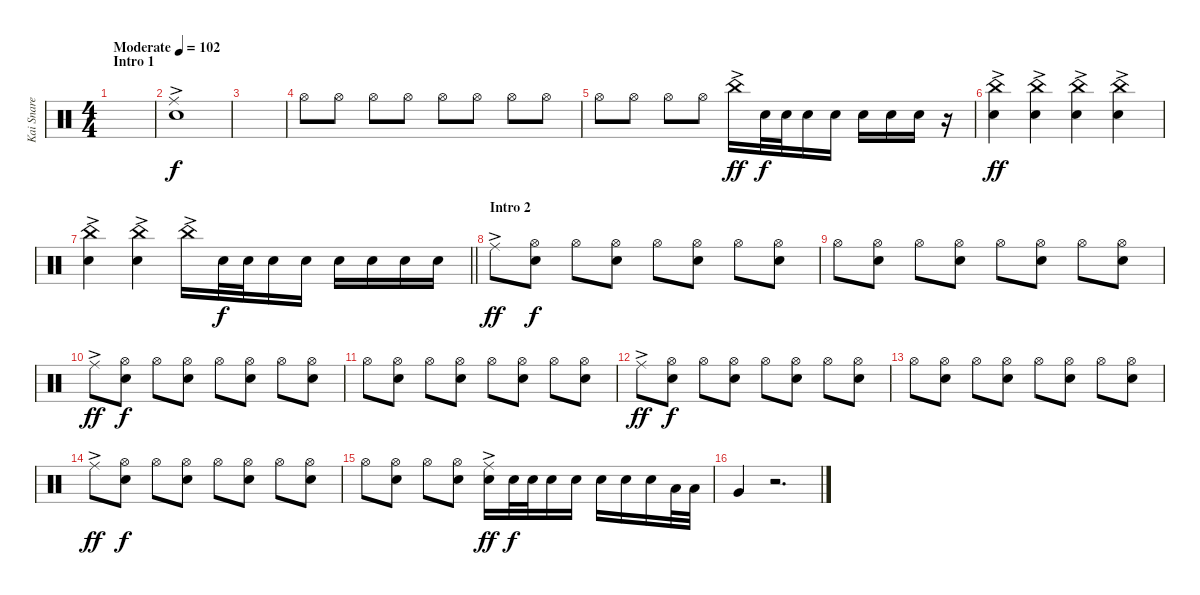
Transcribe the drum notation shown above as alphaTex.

\track ("Kai Snare" "Kai Snare") {instrument percussion}
\staff {score}
\articulation defaults
\ts (4 4)
\section ("" "Intro 1")
\tempo (102 "Moderate")
\clef neutral
\ks c
|
("Ride (middle)"{ac} "Snare (hit) 2").1 |
|
"Hi-Hat (open)".8{dy f} "Hi-Hat (open)".8 "Hi-Hat (open)".8 "Hi-Hat (open)".8 "Hi-Hat (open)".8 "Hi-Hat (open)".8 "Hi-Hat (open)".8 "Hi-Hat (open)".8 |
"Hi-Hat (open)".8 "Hi-Hat (open)".8 "Hi-Hat (open)".8 "Hi-Hat (open)".8 "China (hit)"{ac}.16{dy ff} "Snare (hit) 2".32{dy f} "Snare (hit) 2".32 "Snare (hit) 2".16 "Snare (hit) 2".16 "Snare (hit) 2".16 "Snare (hit) 2".16 "Snare (hit) 2".16 r.16 |
("China (hit)"{ac} "Snare (hit) 2").4{dy ff} ("China (hit)"{ac} "Snare (hit) 2").4 ("China (hit)"{ac} "Snare (hit) 2").4 ("China (hit)"{ac} "Snare (hit) 2").4 |
\barLineRight lightlight
("China (hit)"{ac} "Snare (hit) 2").4 ("China (hit)"{ac} "Snare (hit) 2").4 "China (hit)"{ac}.16 "Snare (hit) 2".32{dy f} "Snare (hit) 2".32 "Snare (hit) 2".16 "Snare (hit) 2".16 "Snare (hit) 2".16 "Snare (hit) 2".16 "Snare (hit) 2".16 "Snare (hit) 2".16 |
\section ("" "Intro 2")
"Ride (middle)"{ac}.8{dy ff} ("Hi-Hat (open)" "Snare (hit) 2").8{dy f} "Hi-Hat (open)".8 ("Hi-Hat (open)" "Snare (hit) 2").8 "Hi-Hat (open)".8 ("Hi-Hat (open)" "Snare (hit) 2").8 "Hi-Hat (open)".8 ("Hi-Hat (open)" "Snare (hit) 2").8 |
"Hi-Hat (open)".8 ("Hi-Hat (open)" "Snare (hit) 2").8 "Hi-Hat (open)".8 ("Hi-Hat (open)" "Snare (hit) 2").8 "Hi-Hat (open)".8 ("Hi-Hat (open)" "Snare (hit) 2").8 "Hi-Hat (open)".8 ("Hi-Hat (open)" "Snare (hit) 2").8 |
"Ride (middle)"{ac}.8{dy ff} ("Hi-Hat (open)" "Snare (hit) 2").8{dy f} "Hi-Hat (open)".8 ("Hi-Hat (open)" "Snare (hit) 2").8 "Hi-Hat (open)".8 ("Hi-Hat (open)" "Snare (hit) 2").8 "Hi-Hat (open)".8 ("Hi-Hat (open)" "Snare (hit) 2").8 |
"Hi-Hat (open)".8 ("Hi-Hat (open)" "Snare (hit) 2").8 "Hi-Hat (open)".8 ("Hi-Hat (open)" "Snare (hit) 2").8 "Hi-Hat (open)".8 ("Hi-Hat (open)" "Snare (hit) 2").8 "Hi-Hat (open)".8 ("Hi-Hat (open)" "Snare (hit) 2").8 |
"Ride (middle)"{ac}.8{dy ff} ("Hi-Hat (open)" "Snare (hit) 2").8{dy f} "Hi-Hat (open)".8 ("Hi-Hat (open)" "Snare (hit) 2").8 "Hi-Hat (open)".8 ("Hi-Hat (open)" "Snare (hit) 2").8 "Hi-Hat (open)".8 ("Hi-Hat (open)" "Snare (hit) 2").8 |
"Hi-Hat (open)".8 ("Hi-Hat (open)" "Snare (hit) 2").8 "Hi-Hat (open)".8 ("Hi-Hat (open)" "Snare (hit) 2").8 "Hi-Hat (open)".8 ("Hi-Hat (open)" "Snare (hit) 2").8 "Hi-Hat (open)".8 ("Hi-Hat (open)" "Snare (hit) 2").8 |
"Ride (middle)"{ac}.8{dy ff} ("Hi-Hat (open)" "Snare (hit) 2").8{dy f} "Hi-Hat (open)".8 ("Hi-Hat (open)" "Snare (hit) 2").8 "Hi-Hat (open)".8 ("Hi-Hat (open)" "Snare (hit) 2").8 "Hi-Hat (open)".8 ("Hi-Hat (open)" "Snare (hit) 2").8 |
"Hi-Hat (open)".8 ("Hi-Hat (open)" "Snare (hit) 2").8 "Hi-Hat (open)".8 ("Hi-Hat (open)" "Snare (hit) 2").8 ("Ride (middle)"{ac} "Snare (hit) 2").16{dy ff} "Snare (hit) 2".32{dy f} "Snare (hit) 2".32 "Snare (hit) 2".16 "Snare (hit) 2".16 "Snare (hit) 2".16 "Snare (hit) 2".16 "Snare (hit) 2".16 "Low Tom (hit)".32 "Low Tom (hit)".32 |
"Very Low Tom (hit)".4 r.2{d}
